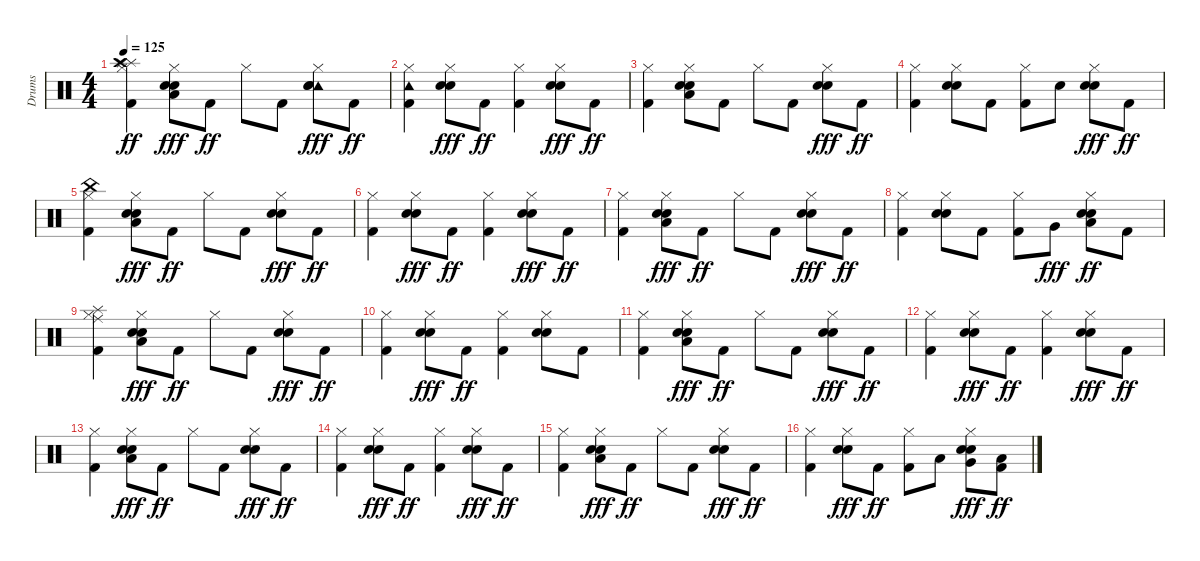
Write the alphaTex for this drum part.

\track ("Drums" "Drums") {instrument percussion}
\staff {score}
\articulation defaults
\ts (4 4)
\tempo 125
\clef neutral
\ks c
("Splash (hit)" "Splash (hit)" "Hi-Hat (closed)" "Kick (hit) 2" "Crash high (hit)").4{dy ff} ("Hi-Hat (closed)" "Hand Clap (hit)" "Low Tom (hit)" "Snare (hit) 2").8{dy fff} "Kick (hit) 2".8{dy ff} "Hi-Hat (closed)".8 "Kick (hit) 2".8 ("Tambourine (hit)" "Hi-Hat (closed)" "Hand Clap (hit)" "Snare (hit) 2").8{dy fff} "Kick (hit) 2".8{dy ff} |
("Tambourine (hit)" "Hi-Hat (closed)" "Kick (hit) 2").4 ("Hi-Hat (closed)" "Hand Clap (hit)" "Snare (hit) 2").8{dy fff} "Kick (hit) 2".8{dy ff} ("Hi-Hat (closed)" "Kick (hit) 2").4 ("Hi-Hat (closed)" "Hand Clap (hit)" "Snare (hit) 2").8{dy fff} "Kick (hit) 2".8{dy ff} |
("Hi-Hat (closed)" "Kick (hit) 2").4 ("Hi-Hat (closed)" "Hand Clap (hit)" "Low Tom (hit)" "Snare (hit) 2").8 "Kick (hit) 2".8 "Hi-Hat (closed)".8 "Kick (hit) 2".8 ("Hi-Hat (closed)" "Hand Clap (hit)" "Snare (hit) 2").8{dy fff} "Kick (hit) 2".8{dy ff} |
("Hi-Hat (closed)" "Kick (hit) 2").4 ("Hi-Hat (closed)" "Hand Clap (hit)" "Snare (hit) 2").8 "Kick (hit) 2".8 ("Hi-Hat (closed)" "Kick (hit) 2").8 "Snare (hit) 2".8 ("Hi-Hat (closed)" "Hand Clap (hit)" "Snare (hit) 2").8{dy fff} "Kick (hit) 2".8{dy ff} |
("China (hit)" "Hi-Hat (closed)" "Kick (hit) 2").4 ("Hi-Hat (closed)" "Hand Clap (hit)" "Low Tom (hit)" "Snare (hit) 2").8{dy fff} "Kick (hit) 2".8{dy ff} "Hi-Hat (closed)".8 "Kick (hit) 2".8 ("Hi-Hat (closed)" "Hand Clap (hit)" "Snare (hit) 2").8{dy fff} "Kick (hit) 2".8{dy ff} |
("Hi-Hat (closed)" "Kick (hit) 2").4 ("Hi-Hat (closed)" "Hand Clap (hit)" "Snare (hit) 2").8{dy fff} "Kick (hit) 2".8{dy ff} ("Hi-Hat (closed)" "Kick (hit) 2").4 ("Hi-Hat (closed)" "Hand Clap (hit)" "Snare (hit) 2").8{dy fff} "Kick (hit) 2".8{dy ff} |
("Hi-Hat (closed)" "Kick (hit) 2").4 ("Hi-Hat (closed)" "Hand Clap (hit)" "Low Tom (hit)" "Snare (hit) 2").8{dy fff} "Kick (hit) 2".8{dy ff} "Hi-Hat (closed)".8 "Kick (hit) 2".8 ("Hi-Hat (closed)" "Hand Clap (hit)" "Snare (hit) 2").8{dy fff} "Kick (hit) 2".8{dy ff} |
("Hi-Hat (closed)" "Kick (hit) 2").4 ("Hi-Hat (closed)" "Hand Clap (hit)" "Snare (hit) 2").8 "Kick (hit) 2".8 ("Hi-Hat (closed)" "Kick (hit) 2").8 "Very Low Tom (hit)".8{dy fff} ("Hi-Hat (closed)" "Hand Clap (hit)" "Snare (hit) 2" "Low Floor Tom (hit)").8{dy ff} "Kick (hit) 2".8 |
("Splash (hit)" "Hi-Hat (closed)" "Kick (hit) 2" "Ride (middle)").4 ("Hi-Hat (closed)" "Hand Clap (hit)" "Low Tom (hit)" "Snare (hit) 2").8{dy fff} "Kick (hit) 2".8{dy ff} "Hi-Hat (closed)".8 "Kick (hit) 2".8 ("Hi-Hat (closed)" "Hand Clap (hit)" "Snare (hit) 2").8{dy fff} "Kick (hit) 2".8{dy ff} |
("Hi-Hat (closed)" "Kick (hit) 2").4 ("Hi-Hat (closed)" "Hand Clap (hit)" "Snare (hit) 2").8{dy fff} "Kick (hit) 2".8{dy ff} ("Hi-Hat (closed)" "Kick (hit) 2").4 ("Hi-Hat (closed)" "Hand Clap (hit)" "Snare (hit) 2").8 "Kick (hit) 2".8 |
("Hi-Hat (closed)" "Kick (hit) 2").4 ("Hi-Hat (closed)" "Hand Clap (hit)" "Low Tom (hit)" "Snare (hit) 2").8{dy fff} "Kick (hit) 2".8{dy ff} "Hi-Hat (closed)".8 "Kick (hit) 2".8 ("Hi-Hat (closed)" "Hand Clap (hit)" "Snare (hit) 2").8{dy fff} "Kick (hit) 2".8{dy ff} |
("Hi-Hat (closed)" "Kick (hit) 2").4 ("Hi-Hat (closed)" "Hand Clap (hit)" "Snare (hit) 2").8{dy fff} "Kick (hit) 2".8{dy ff} ("Hi-Hat (closed)" "Kick (hit) 2").4 ("Hi-Hat (closed)" "Hand Clap (hit)" "Snare (hit) 2").8{dy fff} "Kick (hit) 2".8{dy ff} |
("Hi-Hat (closed)" "Kick (hit) 2").4 ("Hi-Hat (closed)" "Hand Clap (hit)" "Low Tom (hit)" "Snare (hit) 2").8{dy fff} "Kick (hit) 2".8{dy ff} "Hi-Hat (closed)".8 "Kick (hit) 2".8 ("Hi-Hat (closed)" "Hand Clap (hit)" "Snare (hit) 2").8{dy fff} "Kick (hit) 2".8{dy ff} |
("Hi-Hat (closed)" "Kick (hit) 2").4 ("Hi-Hat (closed)" "Hand Clap (hit)" "Snare (hit) 2").8{dy fff} "Kick (hit) 2".8{dy ff} ("Hi-Hat (closed)" "Kick (hit) 2").4 ("Hi-Hat (closed)" "Hand Clap (hit)" "Snare (hit) 2").8{dy fff} "Kick (hit) 2".8{dy ff} |
("Hi-Hat (closed)" "Kick (hit) 2").4 ("Hi-Hat (closed)" "Hand Clap (hit)" "Low Tom (hit)" "Snare (hit) 2").8{dy fff} "Kick (hit) 2".8{dy ff} "Hi-Hat (closed)".8 "Kick (hit) 2".8 ("Hi-Hat (closed)" "Hand Clap (hit)" "Snare (hit) 2").8{dy fff} "Kick (hit) 2".8{dy ff} |
("Hi-Hat (closed)" "Kick (hit) 2").4 ("Hi-Hat (closed)" "Hand Clap (hit)" "Snare (hit) 2").8{dy fff} "Kick (hit) 2".8{dy ff} ("Hi-Hat (closed)" "Kick (hit) 2").8 "Low Tom (hit)".8 ("Hi-Hat (closed)" "Hand Clap (hit)" "Snare (hit) 2" "Very Low Tom (hit)").8{dy fff} ("Kick (hit) 2" "Low Floor Tom (hit)").8{dy ff}
